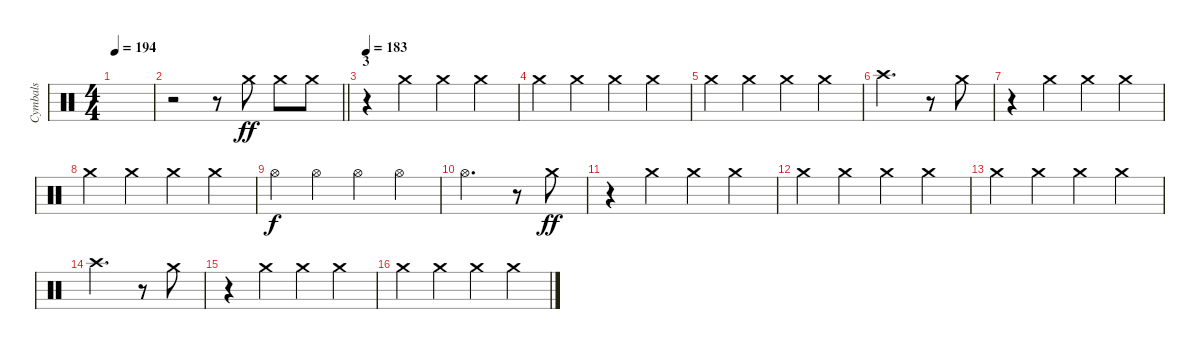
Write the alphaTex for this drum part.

\track ("Cymbals" "Cymbals") {instrument percussion}
\staff {score}
\articulation defaults
\ts (4 4)
\tempo 194
\clef neutral
\ks c
|
\barLineRight lightlight
r.2 r.8 "Crash medium (hit)".8{dy ff} "Crash medium (hit)".8 "Crash medium (hit)".8 |
\section ("" "3")
\tempo 183
r.4 "Crash medium (hit)".4 "Crash medium (hit)".4 "Crash medium (hit)".4 |
"Crash medium (hit)".4 "Crash medium (hit)".4 "Crash medium (hit)".4 "Crash medium (hit)".4 |
"Crash medium (hit)".4 "Crash medium (hit)".4 "Crash medium (hit)".4 "Crash medium (hit)".4 |
"Crash high (hit)".2{d} r.8 "Crash medium (hit)".8 |
r.4 "Crash medium (hit)".4 "Crash medium (hit)".4 "Crash medium (hit)".4 |
"Crash medium (hit)".4 "Crash medium (hit)".4 "Crash medium (hit)".4 "Crash medium (hit)".4 |
"Hi-Hat (open)".4{dy f} "Hi-Hat (open)".4 "Hi-Hat (open)".4 "Hi-Hat (open)".4 |
"Hi-Hat (open)".2{d} r.8 "Crash medium (hit)".8{dy ff} |
r.4 "Crash medium (hit)".4 "Crash medium (hit)".4 "Crash medium (hit)".4 |
"Crash medium (hit)".4 "Crash medium (hit)".4 "Crash medium (hit)".4 "Crash medium (hit)".4 |
"Crash medium (hit)".4 "Crash medium (hit)".4 "Crash medium (hit)".4 "Crash medium (hit)".4 |
"Crash high (hit)".2{d} r.8 "Crash medium (hit)".8 |
r.4 "Crash medium (hit)".4 "Crash medium (hit)".4 "Crash medium (hit)".4 |
"Crash medium (hit)".4 "Crash medium (hit)".4 "Crash medium (hit)".4 "Crash medium (hit)".4
